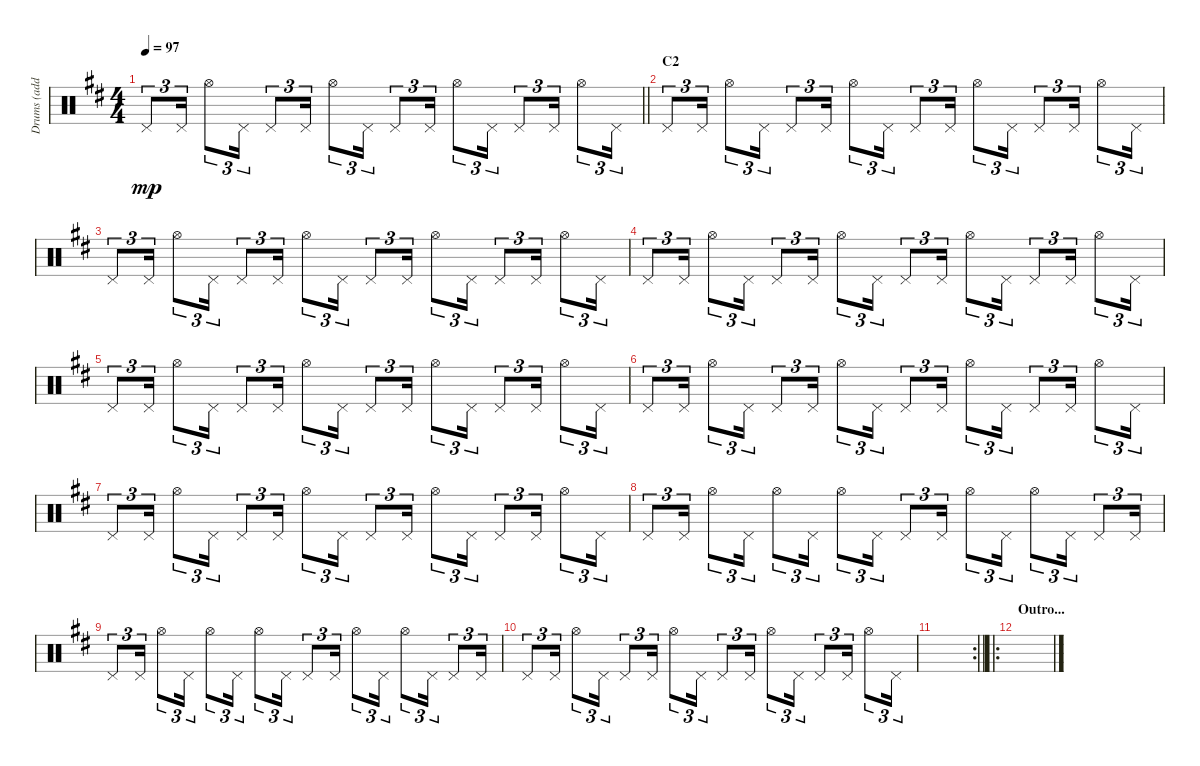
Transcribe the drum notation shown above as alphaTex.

\track ("Drums (additional)" "Drums (add") {instrument percussion}
\staff {score}
\articulation defaults
\ts (4 4)
\tempo 97
\clef neutral
\barLineRight lightlight
\ks d "Pedal Hi-Hat (hit)".8{tu (3 2) dy mp} "Pedal Hi-Hat (hit)".16{tu (3 2)} "Hi-Hat (open)".8{tu (3 2)} "Pedal Hi-Hat (hit)".16{tu (3 2)} "Pedal Hi-Hat (hit)".8{tu (3 2)} "Pedal Hi-Hat (hit)".16{tu (3 2)} "Hi-Hat (open)".8{tu (3 2)} "Pedal Hi-Hat (hit)".16{tu (3 2)} "Pedal Hi-Hat (hit)".8{tu (3 2)} "Pedal Hi-Hat (hit)".16{tu (3 2)} "Hi-Hat (open)".8{tu (3 2)} "Pedal Hi-Hat (hit)".16{tu (3 2)} "Pedal Hi-Hat (hit)".8{tu (3 2)} "Pedal Hi-Hat (hit)".16{tu (3 2)} "Hi-Hat (open)".8{tu (3 2)} "Pedal Hi-Hat (hit)".16{tu (3 2)}
|
\section ("" "C2")
"Pedal Hi-Hat (hit)".8{tu (3 2)} "Pedal Hi-Hat (hit)".16{tu (3 2)} "Hi-Hat (open)".8{tu (3 2)} "Pedal Hi-Hat (hit)".16{tu (3 2)} "Pedal Hi-Hat (hit)".8{tu (3 2)} "Pedal Hi-Hat (hit)".16{tu (3 2)} "Hi-Hat (open)".8{tu (3 2)} "Pedal Hi-Hat (hit)".16{tu (3 2)} "Pedal Hi-Hat (hit)".8{tu (3 2)} "Pedal Hi-Hat (hit)".16{tu (3 2)} "Hi-Hat (open)".8{tu (3 2)} "Pedal Hi-Hat (hit)".16{tu (3 2)} "Pedal Hi-Hat (hit)".8{tu (3 2)} "Pedal Hi-Hat (hit)".16{tu (3 2)} "Hi-Hat (open)".8{tu (3 2)} "Pedal Hi-Hat (hit)".16{tu (3 2)} |
"Pedal Hi-Hat (hit)".8{tu (3 2)} "Pedal Hi-Hat (hit)".16{tu (3 2)} "Hi-Hat (open)".8{tu (3 2)} "Pedal Hi-Hat (hit)".16{tu (3 2)} "Pedal Hi-Hat (hit)".8{tu (3 2)} "Pedal Hi-Hat (hit)".16{tu (3 2)} "Hi-Hat (open)".8{tu (3 2)} "Pedal Hi-Hat (hit)".16{tu (3 2)} "Pedal Hi-Hat (hit)".8{tu (3 2)} "Pedal Hi-Hat (hit)".16{tu (3 2)} "Hi-Hat (open)".8{tu (3 2)} "Pedal Hi-Hat (hit)".16{tu (3 2)} "Pedal Hi-Hat (hit)".8{tu (3 2)} "Pedal Hi-Hat (hit)".16{tu (3 2)} "Hi-Hat (open)".8{tu (3 2)} "Pedal Hi-Hat (hit)".16{tu (3 2)} |
"Pedal Hi-Hat (hit)".8{tu (3 2)} "Pedal Hi-Hat (hit)".16{tu (3 2)} "Hi-Hat (open)".8{tu (3 2)} "Pedal Hi-Hat (hit)".16{tu (3 2)} "Pedal Hi-Hat (hit)".8{tu (3 2)} "Pedal Hi-Hat (hit)".16{tu (3 2)} "Hi-Hat (open)".8{tu (3 2)} "Pedal Hi-Hat (hit)".16{tu (3 2)} "Pedal Hi-Hat (hit)".8{tu (3 2)} "Pedal Hi-Hat (hit)".16{tu (3 2)} "Hi-Hat (open)".8{tu (3 2)} "Pedal Hi-Hat (hit)".16{tu (3 2)} "Pedal Hi-Hat (hit)".8{tu (3 2)} "Pedal Hi-Hat (hit)".16{tu (3 2)} "Hi-Hat (open)".8{tu (3 2)} "Pedal Hi-Hat (hit)".16{tu (3 2)} |
"Pedal Hi-Hat (hit)".8{tu (3 2)} "Pedal Hi-Hat (hit)".16{tu (3 2)} "Hi-Hat (open)".8{tu (3 2)} "Pedal Hi-Hat (hit)".16{tu (3 2)} "Pedal Hi-Hat (hit)".8{tu (3 2)} "Pedal Hi-Hat (hit)".16{tu (3 2)} "Hi-Hat (open)".8{tu (3 2)} "Pedal Hi-Hat (hit)".16{tu (3 2)} "Pedal Hi-Hat (hit)".8{tu (3 2)} "Pedal Hi-Hat (hit)".16{tu (3 2)} "Hi-Hat (open)".8{tu (3 2)} "Pedal Hi-Hat (hit)".16{tu (3 2)} "Pedal Hi-Hat (hit)".8{tu (3 2)} "Pedal Hi-Hat (hit)".16{tu (3 2)} "Hi-Hat (open)".8{tu (3 2)} "Pedal Hi-Hat (hit)".16{tu (3 2)} |
"Pedal Hi-Hat (hit)".8{tu (3 2)} "Pedal Hi-Hat (hit)".16{tu (3 2)} "Hi-Hat (open)".8{tu (3 2)} "Pedal Hi-Hat (hit)".16{tu (3 2)} "Pedal Hi-Hat (hit)".8{tu (3 2)} "Pedal Hi-Hat (hit)".16{tu (3 2)} "Hi-Hat (open)".8{tu (3 2)} "Pedal Hi-Hat (hit)".16{tu (3 2)} "Pedal Hi-Hat (hit)".8{tu (3 2)} "Pedal Hi-Hat (hit)".16{tu (3 2)} "Hi-Hat (open)".8{tu (3 2)} "Pedal Hi-Hat (hit)".16{tu (3 2)} "Pedal Hi-Hat (hit)".8{tu (3 2)} "Pedal Hi-Hat (hit)".16{tu (3 2)} "Hi-Hat (open)".8{tu (3 2)} "Pedal Hi-Hat (hit)".16{tu (3 2)} |
"Pedal Hi-Hat (hit)".8{tu (3 2)} "Pedal Hi-Hat (hit)".16{tu (3 2)} "Hi-Hat (open)".8{tu (3 2)} "Pedal Hi-Hat (hit)".16{tu (3 2)} "Pedal Hi-Hat (hit)".8{tu (3 2)} "Pedal Hi-Hat (hit)".16{tu (3 2)} "Hi-Hat (open)".8{tu (3 2)} "Pedal Hi-Hat (hit)".16{tu (3 2)} "Pedal Hi-Hat (hit)".8{tu (3 2)} "Pedal Hi-Hat (hit)".16{tu (3 2)} "Hi-Hat (open)".8{tu (3 2)} "Pedal Hi-Hat (hit)".16{tu (3 2)} "Pedal Hi-Hat (hit)".8{tu (3 2)} "Pedal Hi-Hat (hit)".16{tu (3 2)} "Hi-Hat (open)".8{tu (3 2)} "Pedal Hi-Hat (hit)".16{tu (3 2)} |
"Pedal Hi-Hat (hit)".8{tu (3 2)} "Pedal Hi-Hat (hit)".16{tu (3 2)} "Hi-Hat (open)".8{tu (3 2)} "Pedal Hi-Hat (hit)".16{tu (3 2)} "Hi-Hat (open)".8{tu (3 2)} "Pedal Hi-Hat (hit)".16{tu (3 2)} "Hi-Hat (open)".8{tu (3 2)} "Pedal Hi-Hat (hit)".16{tu (3 2)} "Pedal Hi-Hat (hit)".8{tu (3 2)} "Pedal Hi-Hat (hit)".16{tu (3 2)} "Hi-Hat (open)".8{tu (3 2)} "Pedal Hi-Hat (hit)".16{tu (3 2)} "Hi-Hat (open)".8{tu (3 2)} "Pedal Hi-Hat (hit)".16{tu (3 2)} "Pedal Hi-Hat (hit)".8{tu (3 2)} "Pedal Hi-Hat (hit)".16{tu (3 2)} |
"Pedal Hi-Hat (hit)".8{tu (3 2)} "Pedal Hi-Hat (hit)".16{tu (3 2)} "Hi-Hat (open)".8{tu (3 2)} "Pedal Hi-Hat (hit)".16{tu (3 2)} "Hi-Hat (open)".8{tu (3 2)} "Pedal Hi-Hat (hit)".16{tu (3 2)} "Hi-Hat (open)".8{tu (3 2)} "Pedal Hi-Hat (hit)".16{tu (3 2)} "Pedal Hi-Hat (hit)".8{tu (3 2)} "Pedal Hi-Hat (hit)".16{tu (3 2)} "Hi-Hat (open)".8{tu (3 2)} "Pedal Hi-Hat (hit)".16{tu (3 2)} "Hi-Hat (open)".8{tu (3 2)} "Pedal Hi-Hat (hit)".16{tu (3 2)} "Pedal Hi-Hat (hit)".8{tu (3 2)} "Pedal Hi-Hat (hit)".16{tu (3 2)} |
"Pedal Hi-Hat (hit)".8{tu (3 2)} "Pedal Hi-Hat (hit)".16{tu (3 2)} "Hi-Hat (open)".8{tu (3 2)} "Pedal Hi-Hat (hit)".16{tu (3 2)} "Pedal Hi-Hat (hit)".8{tu (3 2)} "Pedal Hi-Hat (hit)".16{tu (3 2)} "Hi-Hat (open)".8{tu (3 2)} "Pedal Hi-Hat (hit)".16{tu (3 2)} "Pedal Hi-Hat (hit)".8{tu (3 2)} "Pedal Hi-Hat (hit)".16{tu (3 2)} "Hi-Hat (open)".8{tu (3 2)} "Pedal Hi-Hat (hit)".16{tu (3 2)} "Pedal Hi-Hat (hit)".8{tu (3 2)} "Pedal Hi-Hat (hit)".16{tu (3 2)} "Hi-Hat (open)".8{tu (3 2)} "Pedal Hi-Hat (hit)".16{tu (3 2)} |
\rc 2
\barLineRight lightlight
|
\ro
\section ("" "Outro...")
